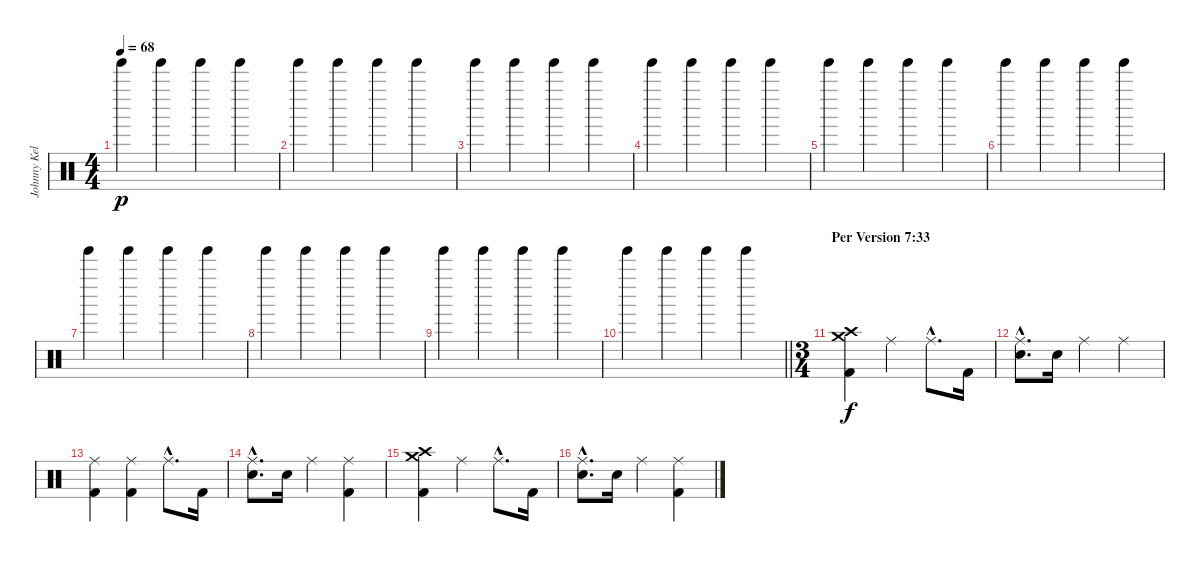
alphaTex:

\track ("Johnny Kelly" "Johnny Kel") {instrument percussion}
\staff {score}
\articulation defaults
\ts (4 4)
\tempo 68
\clef neutral
\ks c "Tinkle Bell (hit)".4{dy p} "Tinkle Bell (hit)".4 "Tinkle Bell (hit)".4 "Tinkle Bell (hit)".4
|
"Tinkle Bell (hit)".4 "Tinkle Bell (hit)".4 "Tinkle Bell (hit)".4 "Tinkle Bell (hit)".4 |
"Tinkle Bell (hit)".4 "Tinkle Bell (hit)".4 "Tinkle Bell (hit)".4 "Tinkle Bell (hit)".4 |
"Tinkle Bell (hit)".4 "Tinkle Bell (hit)".4 "Tinkle Bell (hit)".4 "Tinkle Bell (hit)".4 |
"Tinkle Bell (hit)".4 "Tinkle Bell (hit)".4 "Tinkle Bell (hit)".4 "Tinkle Bell (hit)".4 |
"Tinkle Bell (hit)".4 "Tinkle Bell (hit)".4 "Tinkle Bell (hit)".4 "Tinkle Bell (hit)".4 |
"Tinkle Bell (hit)".4 "Tinkle Bell (hit)".4 "Tinkle Bell (hit)".4 "Tinkle Bell (hit)".4 |
"Tinkle Bell (hit)".4 "Tinkle Bell (hit)".4 "Tinkle Bell (hit)".4 "Tinkle Bell (hit)".4 |
"Tinkle Bell (hit)".4 "Tinkle Bell (hit)".4 "Tinkle Bell (hit)".4 "Tinkle Bell (hit)".4 |
\barLineRight lightlight "Tinkle Bell (hit)".4 "Tinkle Bell (hit)".4 "Tinkle Bell (hit)".4 "Tinkle Bell (hit)".4
|
\ts (3 4)
\section ("" "Per Version 7:33")
("Crash high (hit)" "Crash medium (hit)" "Kick (hit) 2").4{dy f} "Ride (middle)".4 "Ride (middle)"{hac}.8{d} "Kick (hit) 2".16 |
("Ride (middle)"{hac} "Electric Snare (hit)"{hac}).8{d} "Electric Snare (hit)".16 "Ride (middle)".4 "Ride (middle)".4 |
("Ride (middle)" "Kick (hit) 2").4 ("Ride (middle)" "Kick (hit) 2").4 "Ride (middle)"{hac}.8{d} "Kick (hit) 2".16 |
("Ride (middle)"{hac} "Electric Snare (hit)"{hac}).8{d} "Electric Snare (hit)".16 "Ride (middle)".4 ("Ride (middle)" "Kick (hit) 2").4 |
("Crash high (hit)" "Crash medium (hit)" "Kick (hit) 2").4 "Ride (middle)".4 "Ride (middle)"{hac}.8{d} "Kick (hit) 2".16 |
("Ride (middle)"{hac} "Electric Snare (hit)"{hac}).8{d} "Electric Snare (hit)".16 "Ride (middle)".4 ("Ride (middle)" "Kick (hit) 2").4
